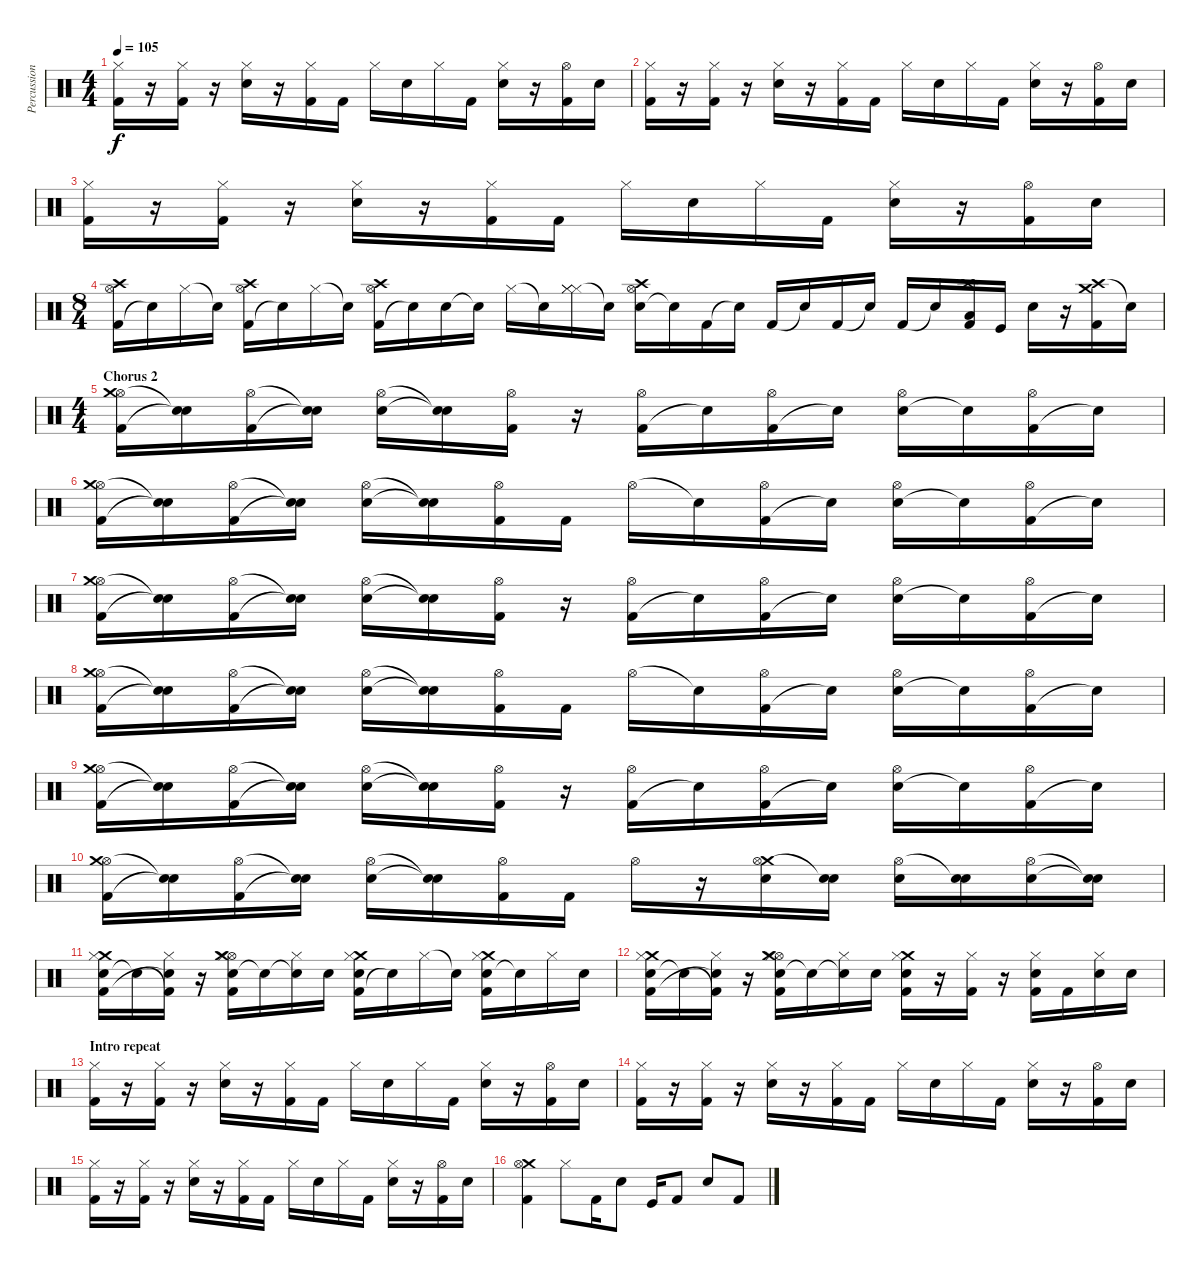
\track ("Percussion" "Percussion") {instrument percussion}
\staff {score}
\articulation defaults
\ts (4 4)
\tempo 105
\clef neutral
\ks c
("Hi-Hat (closed)" "Kick (hit) 2").16{dy f} r.16 ("Hi-Hat (closed)" "Kick (hit) 2").16 r.16 ("Hi-Hat (closed)" "Electric Snare (hit)").16 r.16 ("Hi-Hat (closed)" "Kick (hit) 2").16 "Kick (hit) 2".16 "Hi-Hat (closed)".16 "Electric Snare (hit)".16 "Hi-Hat (closed)".16 "Kick (hit) 2".16 ("Hi-Hat (closed)" "Electric Snare (hit)").16 r.16 ("Hi-Hat (open)" "Kick (hit) 2").16 "Electric Snare (hit)".16 |
("Hi-Hat (closed)" "Kick (hit) 2").16 r.16 ("Hi-Hat (closed)" "Kick (hit) 2").16 r.16 ("Hi-Hat (closed)" "Electric Snare (hit)").16 r.16 ("Hi-Hat (closed)" "Kick (hit) 2").16 "Kick (hit) 2".16 "Hi-Hat (closed)".16 "Electric Snare (hit)".16 "Hi-Hat (closed)".16 "Kick (hit) 2".16 ("Hi-Hat (closed)" "Electric Snare (hit)").16 r.16 ("Hi-Hat (open)" "Kick (hit) 2").16 "Electric Snare (hit)".16 |
("Hi-Hat (closed)" "Kick (hit) 2").16 r.16 ("Hi-Hat (closed)" "Kick (hit) 2").16 r.16 ("Hi-Hat (closed)" "Electric Snare (hit)").16 r.16 ("Hi-Hat (closed)" "Kick (hit) 2").16 "Kick (hit) 2".16 "Hi-Hat (closed)".16 "Electric Snare (hit)".16 "Hi-Hat (closed)".16 "Kick (hit) 2".16 ("Hi-Hat (closed)" "Electric Snare (hit)").16 r.16 ("Hi-Hat (open)" "Kick (hit) 2").16 "Electric Snare (hit)".16 |
\ts (8 4)
("Kick (hit) 2" "Hi-Hat (open)" "Crash high (hit)").16 "Snare (hit)"{t}.16 "Hi-Hat (closed)".16 "Snare (hit)"{t}.16 ("Kick (hit) 2" "Hi-Hat (open)" "Crash high (hit)").16 "Snare (hit)"{t}.16 "Hi-Hat (closed)".16 "Snare (hit)"{t}.16 ("Kick (hit) 2" "Hi-Hat (open)" "Crash high (hit)").16 "Snare (hit)"{t}.16 "Snare (hit) 2".16 "Snare (hit)"{t}.16 "Hi-Hat (closed)".16 "Snare (hit)"{t}.16 ("Hi-Hat (closed)" "Hi-Hat (closed)" "Hi-Hat (closed)").16 "Snare (hit)"{t}.16 ("Snare (hit) 2" "Hi-Hat (open)" "Crash high (hit)").16 "Snare (hit)"{t}.16 "Kick (hit) 2".16 "Snare (hit)"{t}.16 "Kick (hit) 2".16 "Snare (hit)"{t}.16 "Kick (hit) 2".16 "Snare (hit)"{t}.16 "Kick (hit) 2".16 "Snare (hit)"{t}.16 ("Kick (hit) 2" "Crash high (hit)" "Low Tom (hit)").16 "Kick (hit)".16 "Snare (hit) 2".16 r.16 ("Crash high (hit)" "Crash medium (hit)" "Kick (hit) 2").16 "Snare (hit)"{t}.16 |
\ts (4 4)
\section ("" "Chorus 2")
("Kick (hit) 2" "Hi-Hat (open)" "Crash medium (hit)").16 ("Snare (hit)"{t} "Snare (hit)"{t}).16 ("Kick (hit) 2" "Hi-Hat (open)").16 ("Snare (hit)"{t} "Snare (hit)"{t}).16 ("Electric Snare (hit)" "Hi-Hat (open)").16 ("Snare (hit)"{t} "Snare (hit)"{t}).16 ("Kick (hit) 2" "Hi-Hat (open)").16 r.16 ("Kick (hit) 2" "Hi-Hat (open)").16 "Snare (hit)"{t}.16 ("Kick (hit) 2" "Hi-Hat (open)").16 "Snare (hit)"{t}.16 ("Snare (hit) 2" "Hi-Hat (open)").16 "Snare (hit)"{t}.16 ("Kick (hit) 2" "Hi-Hat (open)").16 "Snare (hit)"{t}.16 |
("Kick (hit) 2" "Hi-Hat (open)" "Crash medium (hit)").16 ("Snare (hit)"{t} "Snare (hit)"{t}).16 ("Kick (hit) 2" "Hi-Hat (open)").16 ("Snare (hit)"{t} "Snare (hit)"{t}).16 ("Electric Snare (hit)" "Hi-Hat (open)").16 ("Snare (hit)"{t} "Snare (hit)"{t}).16 ("Kick (hit) 2" "Hi-Hat (open)").16 "Kick (hit) 2".16 "Hi-Hat (open)".16 "Snare (hit)"{t}.16 ("Kick (hit) 2" "Hi-Hat (open)").16 "Snare (hit)"{t}.16 ("Snare (hit) 2" "Hi-Hat (open)").16 "Snare (hit)"{t}.16 ("Kick (hit) 2" "Hi-Hat (open)").16 "Snare (hit)"{t}.16 |
("Kick (hit) 2" "Hi-Hat (open)" "Crash medium (hit)").16 ("Snare (hit)"{t} "Snare (hit)"{t}).16 ("Kick (hit) 2" "Hi-Hat (open)").16 ("Snare (hit)"{t} "Snare (hit)"{t}).16 ("Electric Snare (hit)" "Hi-Hat (open)").16 ("Snare (hit)"{t} "Snare (hit)"{t}).16 ("Kick (hit) 2" "Hi-Hat (open)").16 r.16 ("Kick (hit) 2" "Hi-Hat (open)").16 "Snare (hit)"{t}.16 ("Kick (hit) 2" "Hi-Hat (open)").16 "Snare (hit)"{t}.16 ("Snare (hit) 2" "Hi-Hat (open)").16 "Snare (hit)"{t}.16 ("Kick (hit) 2" "Hi-Hat (open)").16 "Snare (hit)"{t}.16 |
("Kick (hit) 2" "Hi-Hat (open)" "Crash medium (hit)").16 ("Snare (hit)"{t} "Snare (hit)"{t}).16 ("Kick (hit) 2" "Hi-Hat (open)").16 ("Snare (hit)"{t} "Snare (hit)"{t}).16 ("Electric Snare (hit)" "Hi-Hat (open)").16 ("Snare (hit)"{t} "Snare (hit)"{t}).16 ("Kick (hit) 2" "Hi-Hat (open)").16 "Kick (hit) 2".16 "Hi-Hat (open)".16 "Snare (hit)"{t}.16 ("Kick (hit) 2" "Hi-Hat (open)").16 "Snare (hit)"{t}.16 ("Snare (hit) 2" "Hi-Hat (open)").16 "Snare (hit)"{t}.16 ("Kick (hit) 2" "Hi-Hat (open)").16 "Snare (hit)"{t}.16 |
("Kick (hit) 2" "Hi-Hat (open)" "Crash medium (hit)").16 ("Snare (hit)"{t} "Snare (hit)"{t}).16 ("Kick (hit) 2" "Hi-Hat (open)").16 ("Snare (hit)"{t} "Snare (hit)"{t}).16 ("Electric Snare (hit)" "Hi-Hat (open)").16 ("Snare (hit)"{t} "Snare (hit)"{t}).16 ("Kick (hit) 2" "Hi-Hat (open)").16 r.16 ("Kick (hit) 2" "Hi-Hat (open)").16 "Snare (hit)"{t}.16 ("Kick (hit) 2" "Hi-Hat (open)").16 "Snare (hit)"{t}.16 ("Snare (hit) 2" "Hi-Hat (open)").16 "Snare (hit)"{t}.16 ("Kick (hit) 2" "Hi-Hat (open)").16 "Snare (hit)"{t}.16 |
("Kick (hit) 2" "Hi-Hat (open)" "Crash medium (hit)").16 ("Snare (hit)"{t} "Snare (hit)"{t}).16 ("Kick (hit) 2" "Hi-Hat (open)").16 ("Snare (hit)"{t} "Snare (hit)"{t}).16 ("Electric Snare (hit)" "Hi-Hat (open)").16 ("Snare (hit)"{t} "Snare (hit)"{t}).16 ("Kick (hit) 2" "Hi-Hat (open)").16 "Kick (hit) 2".16 "Hi-Hat (open)".16 r.16 ("Snare (hit) 2" "Crash medium (hit)" "Hi-Hat (open)").16 ("Snare (hit) 2" "Snare (hit)"{t}).16 ("Snare (hit) 2" "Hi-Hat (open)").16 ("Snare (hit) 2" "Snare (hit)"{t}).16 ("Snare (hit) 2" "Hi-Hat (open)").16 ("Snare (hit) 2"{t} "Snare (hit)"{t}).16 |
("Snare (hit) 2" "Kick (hit) 2" "Crash medium (hit)" "Hi-Hat (closed)").16 "Snare (hit)"{t}.16 ("Kick (hit) 2"{t} "Snare (hit) 2"{t} "Hi-Hat (closed)").16 r.16 ("Snare (hit) 2" "Hi-Hat (open)" "Kick (hit) 2" "Crash medium (hit)" "Hi-Hat (closed)").16 "Snare (hit)"{t}.16 ("Snare (hit)"{t} "Hi-Hat (closed)").16 "Snare (hit) 2".16 ("Kick (hit) 2" "Snare (hit) 2" "Crash medium (hit)" "Hi-Hat (closed)").16 "Snare (hit)"{t}.16 "Hi-Hat (closed)".16 "Snare (hit)"{t}.16 ("Snare (hit) 2" "Kick (hit) 2" "Crash medium (hit)" "Hi-Hat (closed)").16 "Snare (hit)"{t}.16 "Hi-Hat (closed)".16 "Snare (hit) 2".16 |
("Snare (hit) 2" "Kick (hit) 2" "Crash medium (hit)" "Hi-Hat (closed)").16 "Snare (hit)"{t}.16 ("Kick (hit) 2"{t} "Snare (hit) 2"{t} "Hi-Hat (closed)").16 r.16 ("Snare (hit) 2" "Hi-Hat (open)" "Kick (hit) 2" "Crash medium (hit)" "Hi-Hat (closed)").16 "Snare (hit)"{t}.16 ("Snare (hit)"{t} "Hi-Hat (closed)").16 "Snare (hit) 2".16 ("Kick (hit) 2" "Snare (hit) 2" "Crash medium (hit)" "Hi-Hat (closed)").16 r.16 ("Kick (hit) 2" "Hi-Hat (closed)").16 r.16 ("Snare (hit) 2" "Kick (hit) 2" "Hi-Hat (closed)").16 "Kick (hit) 2".16 ("Snare (hit) 2" "Hi-Hat (closed)").16 "Snare (hit) 2".16 |
\section ("" "Intro repeat")
("Hi-Hat (closed)" "Kick (hit) 2").16 r.16 ("Hi-Hat (closed)" "Kick (hit) 2").16 r.16 ("Hi-Hat (closed)" "Electric Snare (hit)").16 r.16 ("Hi-Hat (closed)" "Kick (hit) 2").16 "Kick (hit) 2".16 "Hi-Hat (closed)".16 "Electric Snare (hit)".16 "Hi-Hat (closed)".16 "Kick (hit) 2".16 ("Hi-Hat (closed)" "Electric Snare (hit)").16 r.16 ("Hi-Hat (open)" "Kick (hit) 2").16 "Electric Snare (hit)".16 |
("Hi-Hat (closed)" "Kick (hit) 2").16 r.16 ("Hi-Hat (closed)" "Kick (hit) 2").16 r.16 ("Hi-Hat (closed)" "Electric Snare (hit)").16 r.16 ("Hi-Hat (closed)" "Kick (hit) 2").16 "Kick (hit) 2".16 "Hi-Hat (closed)".16 "Electric Snare (hit)".16 "Hi-Hat (closed)".16 "Kick (hit) 2".16 ("Hi-Hat (closed)" "Electric Snare (hit)").16 r.16 ("Hi-Hat (open)" "Kick (hit) 2").16 "Electric Snare (hit)".16 |
("Hi-Hat (closed)" "Kick (hit) 2").16 r.16 ("Hi-Hat (closed)" "Kick (hit) 2").16 r.16 ("Hi-Hat (closed)" "Electric Snare (hit)").16 r.16 ("Hi-Hat (closed)" "Kick (hit) 2").16 "Kick (hit) 2".16 "Hi-Hat (closed)".16 "Electric Snare (hit)".16 "Hi-Hat (closed)".16 "Kick (hit) 2".16 ("Hi-Hat (closed)" "Electric Snare (hit)").16 r.16 ("Hi-Hat (open)" "Kick (hit) 2").16 "Electric Snare (hit)".16 |
("Crash medium (hit)" "Kick (hit) 2" "Hi-Hat (open)").4 "Hi-Hat (closed)".8 "Kick (hit) 2".16 "Snare (hit) 2".8 "Kick (hit)".16 "Kick (hit) 2".8 "Snare (hit) 2".8 "Kick (hit) 2".8
